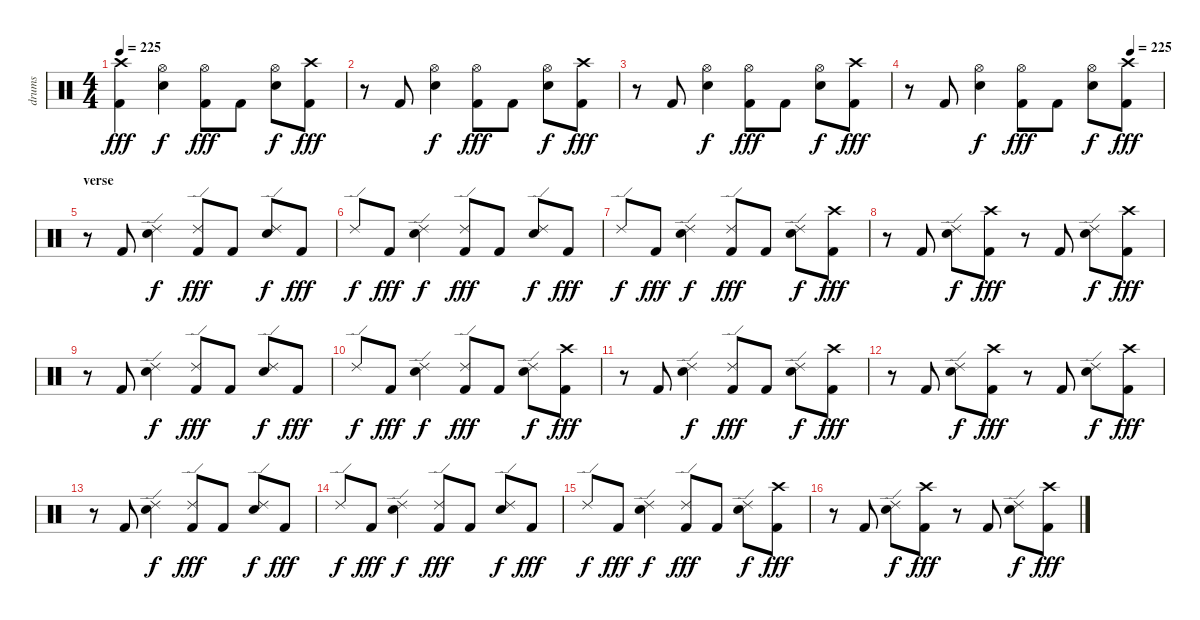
\track ("drums" "drums") {instrument percussion}
\staff {score}
\articulation defaults
\ts (4 4)
\tempo 225
\clef neutral
\ks c
("Crash high (hit)" "Kick (hit) 2").4{dy fff} ("Hi-Hat (open)" "Snare (hit) 2").4{dy f} ("Hi-Hat (open)" "Kick (hit) 2").8{dy fff} "Kick (hit) 2".8 ("Hi-Hat (open)" "Snare (hit) 2").8{dy f} ("Crash high (hit)" "Kick (hit) 2").8{dy fff} |
r.8 "Kick (hit) 2".8 ("Hi-Hat (open)" "Snare (hit) 2").4{dy f} ("Hi-Hat (open)" "Kick (hit) 2").8{dy fff} "Kick (hit) 2".8 ("Hi-Hat (open)" "Snare (hit) 2").8{dy f} ("Crash high (hit)" "Kick (hit) 2").8{dy fff} |
r.8 "Kick (hit) 2".8 ("Hi-Hat (open)" "Snare (hit) 2").4{dy f} ("Hi-Hat (open)" "Kick (hit) 2").8{dy fff} "Kick (hit) 2".8 ("Hi-Hat (open)" "Snare (hit) 2").8{dy f} ("Crash high (hit)" "Kick (hit) 2").8{dy fff} |
\tempo (225 0.875)
r.8 "Kick (hit) 2".8 ("Hi-Hat (open)" "Snare (hit) 2").4{dy f} ("Hi-Hat (open)" "Kick (hit) 2").8{dy fff} "Kick (hit) 2".8 ("Hi-Hat (open)" "Snare (hit) 2").8{dy f} ("Crash high (hit)" "Kick (hit) 2").8{dy fff} |
\section ("" "verse")
r.8 "Kick (hit) 2".8 ("Ride (edge) 2" "Snare (hit) 2").4{dy f} ("Ride (edge) 2" "Kick (hit) 2").8{dy fff} "Kick (hit) 2".8 ("Ride (edge) 2" "Snare (hit) 2").8{dy f} "Kick (hit) 2".8{dy fff} |
"Ride (edge) 2".8{dy f} "Kick (hit) 2".8{dy fff} ("Ride (edge) 2" "Snare (hit) 2").4{dy f} ("Ride (edge) 2" "Kick (hit) 2").8{dy fff} "Kick (hit) 2".8 ("Ride (edge) 2" "Snare (hit) 2").8{dy f} "Kick (hit) 2".8{dy fff} |
"Ride (edge) 2".8{dy f} "Kick (hit) 2".8{dy fff} ("Ride (edge) 2" "Snare (hit) 2").4{dy f} ("Ride (edge) 2" "Kick (hit) 2").8{dy fff} "Kick (hit) 2".8 ("Ride (edge) 2" "Snare (hit) 2").8{dy f} ("Crash high (hit)" "Kick (hit) 2").8{dy fff} |
r.8 "Kick (hit) 2".8 ("Ride (edge) 2" "Snare (hit) 2").8{dy f} ("Crash high (hit)" "Kick (hit) 2").8{dy fff} r.8 "Kick (hit) 2".8 ("Ride (edge) 2" "Snare (hit) 2").8{dy f} ("Crash high (hit)" "Kick (hit) 2").8{dy fff} |
r.8 "Kick (hit) 2".8 ("Ride (edge) 2" "Snare (hit) 2").4{dy f} ("Ride (edge) 2" "Kick (hit) 2").8{dy fff} "Kick (hit) 2".8 ("Ride (edge) 2" "Snare (hit) 2").8{dy f} "Kick (hit) 2".8{dy fff} |
"Ride (edge) 2".8{dy f} "Kick (hit) 2".8{dy fff} ("Ride (edge) 2" "Snare (hit) 2").4{dy f} ("Ride (edge) 2" "Kick (hit) 2").8{dy fff} "Kick (hit) 2".8 ("Ride (edge) 2" "Snare (hit) 2").8{dy f} ("Crash high (hit)" "Kick (hit) 2").8{dy fff} |
r.8 "Kick (hit) 2".8 ("Ride (edge) 2" "Snare (hit) 2").4{dy f} ("Ride (edge) 2" "Kick (hit) 2").8{dy fff} "Kick (hit) 2".8 ("Ride (edge) 2" "Snare (hit) 2").8{dy f} ("Crash high (hit)" "Kick (hit) 2").8{dy fff} |
r.8 "Kick (hit) 2".8 ("Ride (edge) 2" "Snare (hit) 2").8{dy f} ("Crash high (hit)" "Kick (hit) 2").8{dy fff} r.8 "Kick (hit) 2".8 ("Ride (edge) 2" "Snare (hit) 2").8{dy f} ("Crash high (hit)" "Kick (hit) 2").8{dy fff} |
r.8 "Kick (hit) 2".8 ("Ride (edge) 2" "Snare (hit) 2").4{dy f} ("Ride (edge) 2" "Kick (hit) 2").8{dy fff} "Kick (hit) 2".8 ("Ride (edge) 2" "Snare (hit) 2").8{dy f} "Kick (hit) 2".8{dy fff} |
"Ride (edge) 2".8{dy f} "Kick (hit) 2".8{dy fff} ("Ride (edge) 2" "Snare (hit) 2").4{dy f} ("Ride (edge) 2" "Kick (hit) 2").8{dy fff} "Kick (hit) 2".8 ("Ride (edge) 2" "Snare (hit) 2").8{dy f} "Kick (hit) 2".8{dy fff} |
"Ride (edge) 2".8{dy f} "Kick (hit) 2".8{dy fff} ("Ride (edge) 2" "Snare (hit) 2").4{dy f} ("Ride (edge) 2" "Kick (hit) 2").8{dy fff} "Kick (hit) 2".8 ("Ride (edge) 2" "Snare (hit) 2").8{dy f} ("Crash high (hit)" "Kick (hit) 2").8{dy fff} |
r.8 "Kick (hit) 2".8 ("Ride (edge) 2" "Snare (hit) 2").8{dy f} ("Crash high (hit)" "Kick (hit) 2").8{dy fff} r.8 "Kick (hit) 2".8 ("Ride (edge) 2" "Snare (hit) 2").8{dy f} ("Crash high (hit)" "Kick (hit) 2").8{dy fff}
